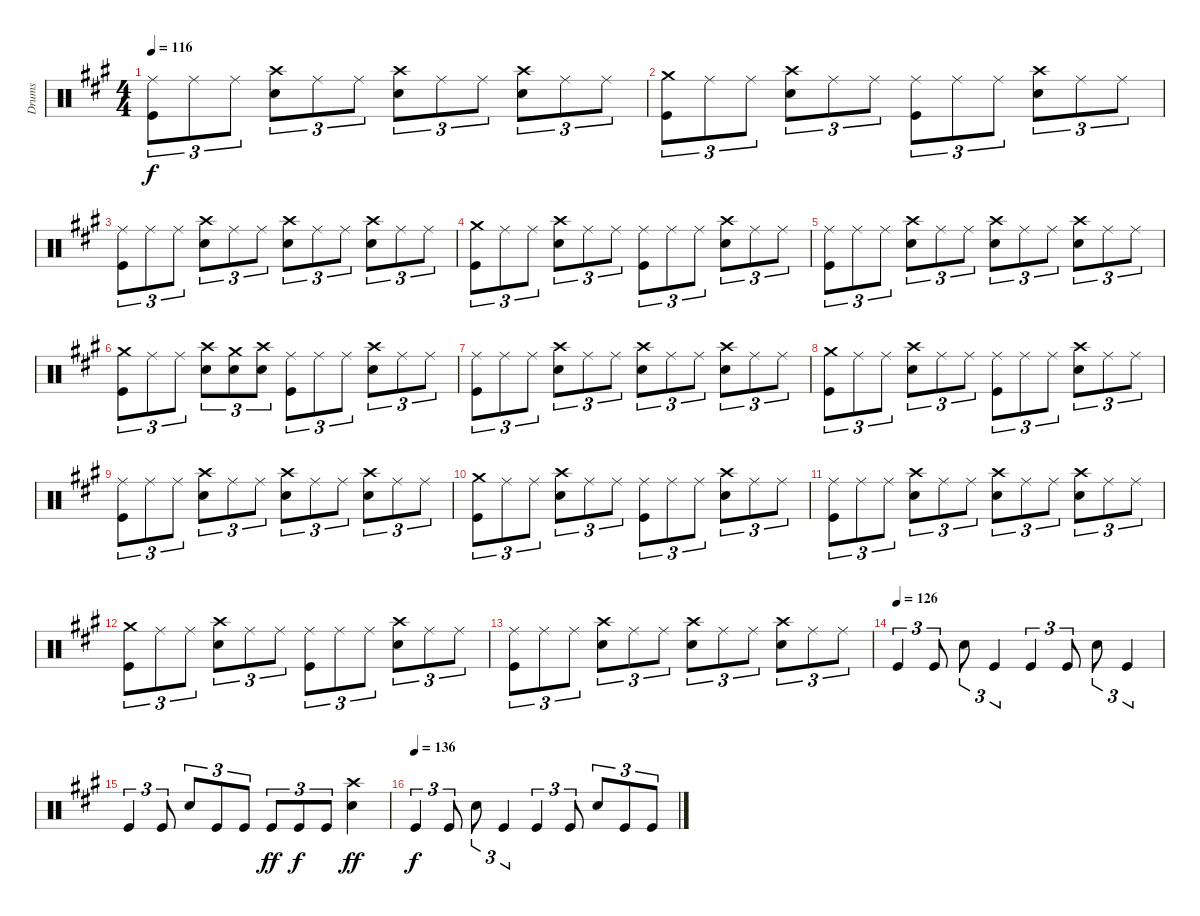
\track ("Drums" "Drums") {instrument percussion}
\staff {score}
\articulation defaults
\ts (4 4)
\tempo 116
\clef neutral
\ks a
("Ride (middle)" "Kick (hit)").8{tu (3 2) dy f} "Ride (middle)".8{tu (3 2)} "Ride (middle)".8{tu (3 2)} ("Crash high (hit)" "Snare (hit) 2").8{tu (3 2)} "Ride (middle)".8{tu (3 2)} "Ride (middle)".8{tu (3 2)} ("Crash high (hit)" "Snare (hit) 2").8{tu (3 2)} "Ride (middle)".8{tu (3 2)} "Ride (middle)".8{tu (3 2)} ("Crash high (hit)" "Snare (hit) 2").8{tu (3 2)} "Ride (middle)".8{tu (3 2)} "Ride (middle)".8{tu (3 2)} |
("Crash medium (hit)" "Kick (hit)").8{tu (3 2)} "Ride (middle)".8{tu (3 2)} "Ride (middle)".8{tu (3 2)} ("Crash high (hit)" "Snare (hit) 2").8{tu (3 2)} "Ride (middle)".8{tu (3 2)} "Ride (middle)".8{tu (3 2)} ("Ride (middle)" "Kick (hit)").8{tu (3 2)} "Ride (middle)".8{tu (3 2)} "Ride (middle)".8{tu (3 2)} ("Crash high (hit)" "Snare (hit) 2").8{tu (3 2)} "Ride (middle)".8{tu (3 2)} "Ride (middle)".8{tu (3 2)} |
("Ride (middle)" "Kick (hit)").8{tu (3 2)} "Ride (middle)".8{tu (3 2)} "Ride (middle)".8{tu (3 2)} ("Crash high (hit)" "Snare (hit) 2").8{tu (3 2)} "Ride (middle)".8{tu (3 2)} "Ride (middle)".8{tu (3 2)} ("Crash high (hit)" "Snare (hit) 2").8{tu (3 2)} "Ride (middle)".8{tu (3 2)} "Ride (middle)".8{tu (3 2)} ("Crash high (hit)" "Snare (hit) 2").8{tu (3 2)} "Ride (middle)".8{tu (3 2)} "Ride (middle)".8{tu (3 2)} |
("Crash medium (hit)" "Kick (hit)").8{tu (3 2)} "Ride (middle)".8{tu (3 2)} "Ride (middle)".8{tu (3 2)} ("Crash high (hit)" "Snare (hit) 2").8{tu (3 2)} "Ride (middle)".8{tu (3 2)} "Ride (middle)".8{tu (3 2)} ("Ride (middle)" "Kick (hit)").8{tu (3 2)} "Ride (middle)".8{tu (3 2)} "Ride (middle)".8{tu (3 2)} ("Crash high (hit)" "Snare (hit) 2").8{tu (3 2)} "Ride (middle)".8{tu (3 2)} "Ride (middle)".8{tu (3 2)} |
("Ride (middle)" "Kick (hit)").8{tu (3 2)} "Ride (middle)".8{tu (3 2)} "Ride (middle)".8{tu (3 2)} ("Crash high (hit)" "Snare (hit) 2").8{tu (3 2)} "Ride (middle)".8{tu (3 2)} "Ride (middle)".8{tu (3 2)} ("Crash high (hit)" "Snare (hit) 2").8{tu (3 2)} "Ride (middle)".8{tu (3 2)} "Ride (middle)".8{tu (3 2)} ("Crash high (hit)" "Snare (hit) 2").8{tu (3 2)} "Ride (middle)".8{tu (3 2)} "Ride (middle)".8{tu (3 2)} |
("Crash medium (hit)" "Kick (hit)").8{tu (3 2)} "Ride (middle)".8{tu (3 2)} "Ride (middle)".8{tu (3 2)} ("Crash high (hit)" "Snare (hit) 2").8{tu (3 2)} ("Crash medium (hit)" "Snare (hit) 2").8{tu (3 2)} ("Crash high (hit)" "Snare (hit) 2").8{tu (3 2)} ("Ride (middle)" "Kick (hit)").8{tu (3 2)} "Ride (middle)".8{tu (3 2)} "Ride (middle)".8{tu (3 2)} ("Crash high (hit)" "Snare (hit) 2").8{tu (3 2)} "Ride (middle)".8{tu (3 2)} "Ride (middle)".8{tu (3 2)} |
("Ride (middle)" "Kick (hit)").8{tu (3 2)} "Ride (middle)".8{tu (3 2)} "Ride (middle)".8{tu (3 2)} ("Crash high (hit)" "Snare (hit) 2").8{tu (3 2)} "Ride (middle)".8{tu (3 2)} "Ride (middle)".8{tu (3 2)} ("Crash high (hit)" "Snare (hit) 2").8{tu (3 2)} "Ride (middle)".8{tu (3 2)} "Ride (middle)".8{tu (3 2)} ("Crash high (hit)" "Snare (hit) 2").8{tu (3 2)} "Ride (middle)".8{tu (3 2)} "Ride (middle)".8{tu (3 2)} |
("Crash medium (hit)" "Kick (hit)").8{tu (3 2)} "Ride (middle)".8{tu (3 2)} "Ride (middle)".8{tu (3 2)} ("Crash high (hit)" "Snare (hit) 2").8{tu (3 2)} "Ride (middle)".8{tu (3 2)} "Ride (middle)".8{tu (3 2)} ("Ride (middle)" "Kick (hit)").8{tu (3 2)} "Ride (middle)".8{tu (3 2)} "Ride (middle)".8{tu (3 2)} ("Crash high (hit)" "Snare (hit) 2").8{tu (3 2)} "Ride (middle)".8{tu (3 2)} "Ride (middle)".8{tu (3 2)} |
("Ride (middle)" "Kick (hit)").8{tu (3 2)} "Ride (middle)".8{tu (3 2)} "Ride (middle)".8{tu (3 2)} ("Crash high (hit)" "Snare (hit) 2").8{tu (3 2)} "Ride (middle)".8{tu (3 2)} "Ride (middle)".8{tu (3 2)} ("Crash high (hit)" "Snare (hit) 2").8{tu (3 2)} "Ride (middle)".8{tu (3 2)} "Ride (middle)".8{tu (3 2)} ("Crash high (hit)" "Snare (hit) 2").8{tu (3 2)} "Ride (middle)".8{tu (3 2)} "Ride (middle)".8{tu (3 2)} |
("Crash medium (hit)" "Kick (hit)").8{tu (3 2)} "Ride (middle)".8{tu (3 2)} "Ride (middle)".8{tu (3 2)} ("Crash high (hit)" "Snare (hit) 2").8{tu (3 2)} "Ride (middle)".8{tu (3 2)} "Ride (middle)".8{tu (3 2)} ("Ride (middle)" "Kick (hit)").8{tu (3 2)} "Ride (middle)".8{tu (3 2)} "Ride (middle)".8{tu (3 2)} ("Crash high (hit)" "Snare (hit) 2").8{tu (3 2)} "Ride (middle)".8{tu (3 2)} "Ride (middle)".8{tu (3 2)} |
("Ride (middle)" "Kick (hit)").8{tu (3 2)} "Ride (middle)".8{tu (3 2)} "Ride (middle)".8{tu (3 2)} ("Crash high (hit)" "Snare (hit) 2").8{tu (3 2)} "Ride (middle)".8{tu (3 2)} "Ride (middle)".8{tu (3 2)} ("Crash high (hit)" "Snare (hit) 2").8{tu (3 2)} "Ride (middle)".8{tu (3 2)} "Ride (middle)".8{tu (3 2)} ("Crash high (hit)" "Snare (hit) 2").8{tu (3 2)} "Ride (middle)".8{tu (3 2)} "Ride (middle)".8{tu (3 2)} |
("Crash medium (hit)" "Kick (hit)").8{tu (3 2)} "Ride (middle)".8{tu (3 2)} "Ride (middle)".8{tu (3 2)} ("Crash high (hit)" "Snare (hit) 2").8{tu (3 2)} "Ride (middle)".8{tu (3 2)} "Ride (middle)".8{tu (3 2)} ("Ride (middle)" "Kick (hit)").8{tu (3 2)} "Ride (middle)".8{tu (3 2)} "Ride (middle)".8{tu (3 2)} ("Crash high (hit)" "Snare (hit) 2").8{tu (3 2)} "Ride (middle)".8{tu (3 2)} "Ride (middle)".8{tu (3 2)} |
("Ride (middle)" "Kick (hit)").8{tu (3 2)} "Ride (middle)".8{tu (3 2)} "Ride (middle)".8{tu (3 2)} ("Crash high (hit)" "Snare (hit) 2").8{tu (3 2)} "Ride (middle)".8{tu (3 2)} "Ride (middle)".8{tu (3 2)} ("Crash high (hit)" "Snare (hit) 2").8{tu (3 2)} "Ride (middle)".8{tu (3 2)} "Ride (middle)".8{tu (3 2)} ("Crash high (hit)" "Snare (hit) 2").8{tu (3 2)} "Ride (middle)".8{tu (3 2)} "Ride (middle)".8{tu (3 2)} |
\tempo (126)
"Kick (hit)".4{tu (3 2)} "Kick (hit)".8{tu (3 2)} "Snare (hit) 2".8{tu (3 2)} "Kick (hit)".4{tu (3 2)} "Kick (hit)".4{tu (3 2)} "Kick (hit)".8{tu (3 2)} "Snare (hit) 2".8{tu (3 2)} "Kick (hit)".4{tu (3 2)} |
"Kick (hit)".4{tu (3 2)} "Kick (hit)".8{tu (3 2)} "Snare (hit) 2".8{tu (3 2)} "Kick (hit)".8{tu (3 2)} "Kick (hit)".8{tu (3 2)} "Kick (hit)".8{tu (3 2) dy ff} "Kick (hit)".8{tu (3 2) dy f} "Kick (hit)".8{tu (3 2)} ("Crash high (hit)" "Snare (hit) 2").4{dy ff} |
\tempo (136)
"Kick (hit)".4{tu (3 2) dy f} "Kick (hit)".8{tu (3 2)} "Snare (hit) 2".8{tu (3 2)} "Kick (hit)".4{tu (3 2)} "Kick (hit)".4{tu (3 2)} "Kick (hit)".8{tu (3 2)} "Snare (hit) 2".8{tu (3 2)} "Kick (hit)".8{tu (3 2)} "Kick (hit)".8{tu (3 2)}
